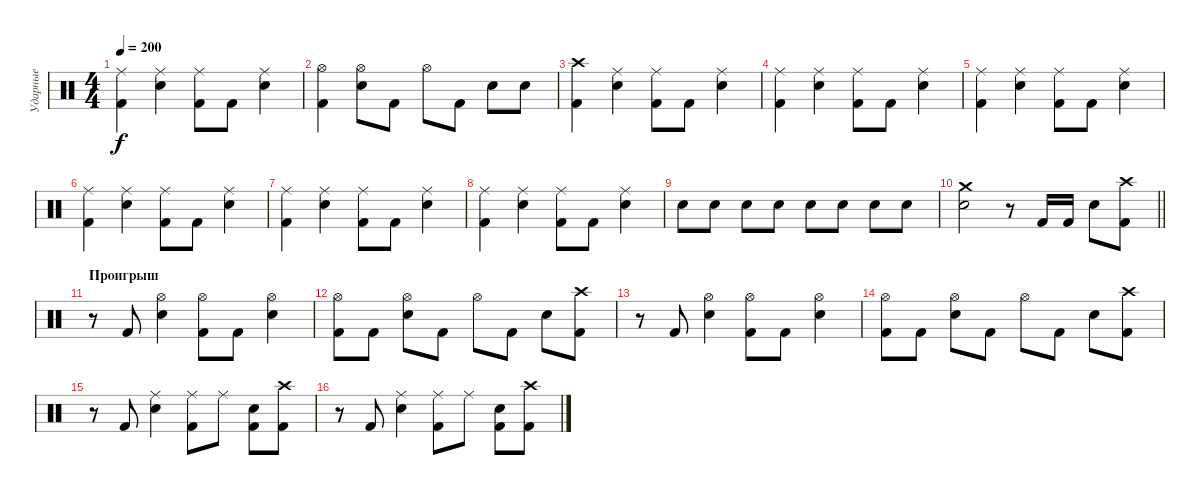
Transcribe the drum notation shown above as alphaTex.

\track ("Ударные" "Ударные") {instrument percussion}
\staff {score}
\articulation defaults
\ts (4 4)
\tempo 200
\clef neutral
\ks c
("Ride (middle)" "Kick (hit) 2").4{dy f} ("Ride (middle)" "Electric Snare (hit)").4 ("Ride (middle)" "Kick (hit) 2").8 "Kick (hit) 2".8 ("Ride (middle)" "Electric Snare (hit)").4 |
("Hi-Hat (open)" "Kick (hit) 2").4 ("Hi-Hat (open)" "Electric Snare (hit)").8 "Kick (hit) 2".8 "Hi-Hat (open)".8 "Kick (hit) 2".8 "Electric Snare (hit)".8 "Electric Snare (hit)".8 |
("Crash high (hit)" "Kick (hit) 2").4 ("Ride (middle)" "Electric Snare (hit)").4 ("Ride (middle)" "Kick (hit) 2").8 "Kick (hit) 2".8 ("Ride (middle)" "Electric Snare (hit)").4 |
("Ride (middle)" "Kick (hit) 2").4 ("Ride (middle)" "Electric Snare (hit)").4 ("Ride (middle)" "Kick (hit) 2").8 "Kick (hit) 2".8 ("Ride (middle)" "Electric Snare (hit)").4 |
("Ride (middle)" "Kick (hit) 2").4 ("Ride (middle)" "Electric Snare (hit)").4 ("Ride (middle)" "Kick (hit) 2").8 "Kick (hit) 2".8 ("Ride (middle)" "Electric Snare (hit)").4 |
("Ride (middle)" "Kick (hit) 2").4 ("Ride (middle)" "Electric Snare (hit)").4 ("Ride (middle)" "Kick (hit) 2").8 "Kick (hit) 2".8 ("Ride (middle)" "Electric Snare (hit)").4 |
("Ride (middle)" "Kick (hit) 2").4 ("Ride (middle)" "Electric Snare (hit)").4 ("Ride (middle)" "Kick (hit) 2").8 "Kick (hit) 2".8 ("Ride (middle)" "Electric Snare (hit)").4 |
("Ride (middle)" "Kick (hit) 2").4 ("Ride (middle)" "Electric Snare (hit)").4 ("Ride (middle)" "Kick (hit) 2").8 "Kick (hit) 2".8 ("Ride (middle)" "Electric Snare (hit)").4 |
"Electric Snare (hit)".8 "Electric Snare (hit)".8 "Electric Snare (hit)".8 "Electric Snare (hit)".8 "Electric Snare (hit)".8 "Electric Snare (hit)".8 "Electric Snare (hit)".8 "Electric Snare (hit)".8 |
\barLineRight lightlight
("Crash medium (hit)" "Electric Snare (hit)").2 r.8 "Kick (hit) 2".16 "Kick (hit) 2".16 "Electric Snare (hit)".8 ("Crash high (hit)" "Kick (hit) 2").8 |
\section ("" "Проигрыш")
r.8 "Kick (hit) 2".8 ("Hi-Hat (open)" "Electric Snare (hit)").4 ("Hi-Hat (open)" "Kick (hit) 2").8 "Kick (hit) 2".8 ("Hi-Hat (open)" "Electric Snare (hit)").4 |
("Hi-Hat (open)" "Kick (hit) 2").8 "Kick (hit) 2".8 ("Hi-Hat (open)" "Electric Snare (hit)").8 "Kick (hit) 2".8 "Hi-Hat (open)".8 "Kick (hit) 2".8 "Electric Snare (hit)".8 ("Crash high (hit)" "Kick (hit) 2").8 |
r.8 "Kick (hit) 2".8 ("Hi-Hat (open)" "Electric Snare (hit)").4 ("Hi-Hat (open)" "Kick (hit) 2").8 "Kick (hit) 2".8 ("Hi-Hat (open)" "Electric Snare (hit)").4 |
("Hi-Hat (open)" "Kick (hit) 2").8 "Kick (hit) 2".8 ("Hi-Hat (open)" "Electric Snare (hit)").8 "Kick (hit) 2".8 "Hi-Hat (open)".8 "Kick (hit) 2".8 "Electric Snare (hit)".8 ("Crash high (hit)" "Kick (hit) 2").8 |
r.8 "Kick (hit) 2".8 ("Ride (middle)" "Electric Snare (hit)").4 ("Ride (middle)" "Kick (hit) 2").8 "Ride (middle)".8 ("Electric Snare (hit)" "Kick (hit) 2").8 ("Crash high (hit)" "Kick (hit) 2").8 |
r.8 "Kick (hit) 2".8 ("Ride (middle)" "Electric Snare (hit)").4 ("Ride (middle)" "Kick (hit) 2").8 "Ride (middle)".8 ("Electric Snare (hit)" "Kick (hit) 2").8 ("Crash high (hit)" "Kick (hit) 2").8
